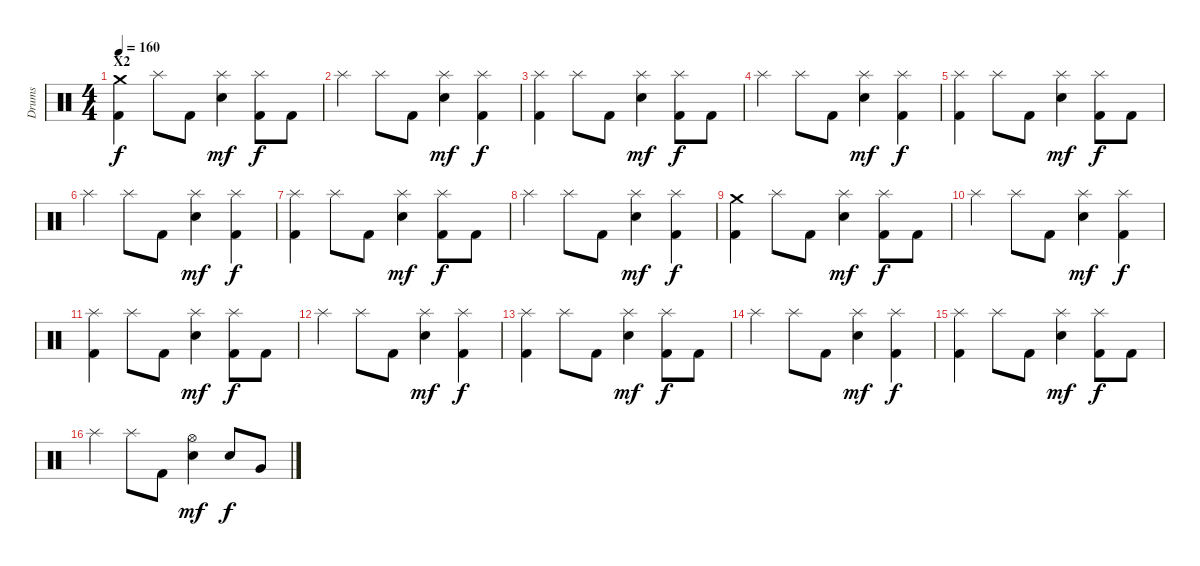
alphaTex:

\track ("Drums" "Drums") {instrument percussion}
\staff {score}
\articulation defaults
\ts (4 4)
\section ("" "X2")
\tempo 160
\clef neutral
\ks c
("Crash medium (hit)" "Kick (hit) 2").4{dy f} "Splash (hit)".8 "Kick (hit) 2".8 ("Splash (hit)" "Electric Snare (hit)").4{dy mf} ("Splash (hit)" "Kick (hit) 2").8{dy f} "Kick (hit) 2".8 |
"Splash (hit)".4 "Splash (hit)".8 "Kick (hit) 2".8 ("Splash (hit)" "Electric Snare (hit)").4{dy mf} ("Splash (hit)" "Kick (hit) 2").4{dy f} |
("Splash (hit)" "Kick (hit) 2").4 "Splash (hit)".8 "Kick (hit) 2".8 ("Splash (hit)" "Electric Snare (hit)").4{dy mf} ("Splash (hit)" "Kick (hit) 2").8{dy f} "Kick (hit) 2".8 |
"Splash (hit)".4 "Splash (hit)".8 "Kick (hit) 2".8 ("Splash (hit)" "Electric Snare (hit)").4{dy mf} ("Splash (hit)" "Kick (hit) 2").4{dy f} |
("Splash (hit)" "Kick (hit) 2").4 "Splash (hit)".8 "Kick (hit) 2".8 ("Splash (hit)" "Electric Snare (hit)").4{dy mf} ("Splash (hit)" "Kick (hit) 2").8{dy f} "Kick (hit) 2".8 |
"Splash (hit)".4 "Splash (hit)".8 "Kick (hit) 2".8 ("Splash (hit)" "Electric Snare (hit)").4{dy mf} ("Splash (hit)" "Kick (hit) 2").4{dy f} |
("Splash (hit)" "Kick (hit) 2").4 "Splash (hit)".8 "Kick (hit) 2".8 ("Splash (hit)" "Electric Snare (hit)").4{dy mf} ("Splash (hit)" "Kick (hit) 2").8{dy f} "Kick (hit) 2".8 |
"Splash (hit)".4 "Splash (hit)".8 "Kick (hit) 2".8 ("Splash (hit)" "Electric Snare (hit)").4{dy mf} ("Splash (hit)" "Kick (hit) 2").4{dy f} |
("Crash medium (hit)" "Kick (hit) 2").4 "Splash (hit)".8 "Kick (hit) 2".8 ("Splash (hit)" "Electric Snare (hit)").4{dy mf} ("Splash (hit)" "Kick (hit) 2").8{dy f} "Kick (hit) 2".8 |
"Splash (hit)".4 "Splash (hit)".8 "Kick (hit) 2".8 ("Splash (hit)" "Electric Snare (hit)").4{dy mf} ("Splash (hit)" "Kick (hit) 2").4{dy f} |
("Splash (hit)" "Kick (hit) 2").4 "Splash (hit)".8 "Kick (hit) 2".8 ("Splash (hit)" "Electric Snare (hit)").4{dy mf} ("Splash (hit)" "Kick (hit) 2").8{dy f} "Kick (hit) 2".8 |
"Splash (hit)".4 "Splash (hit)".8 "Kick (hit) 2".8 ("Splash (hit)" "Electric Snare (hit)").4{dy mf} ("Splash (hit)" "Kick (hit) 2").4{dy f} |
("Splash (hit)" "Kick (hit) 2").4 "Splash (hit)".8 "Kick (hit) 2".8 ("Splash (hit)" "Electric Snare (hit)").4{dy mf} ("Splash (hit)" "Kick (hit) 2").8{dy f} "Kick (hit) 2".8 |
"Splash (hit)".4 "Splash (hit)".8 "Kick (hit) 2".8 ("Splash (hit)" "Electric Snare (hit)").4{dy mf} ("Splash (hit)" "Kick (hit) 2").4{dy f} |
("Splash (hit)" "Kick (hit) 2").4 "Splash (hit)".8 "Kick (hit) 2".8 ("Splash (hit)" "Electric Snare (hit)").4{dy mf} ("Splash (hit)" "Kick (hit) 2").8{dy f} "Kick (hit) 2".8 |
"Splash (hit)".4 "Splash (hit)".8 "Kick (hit) 2".8 ("Hi-Hat (open)" "Electric Snare (hit)").4{dy mf} "Electric Snare (hit)".8{dy f} "Very Low Tom (hit)".8
